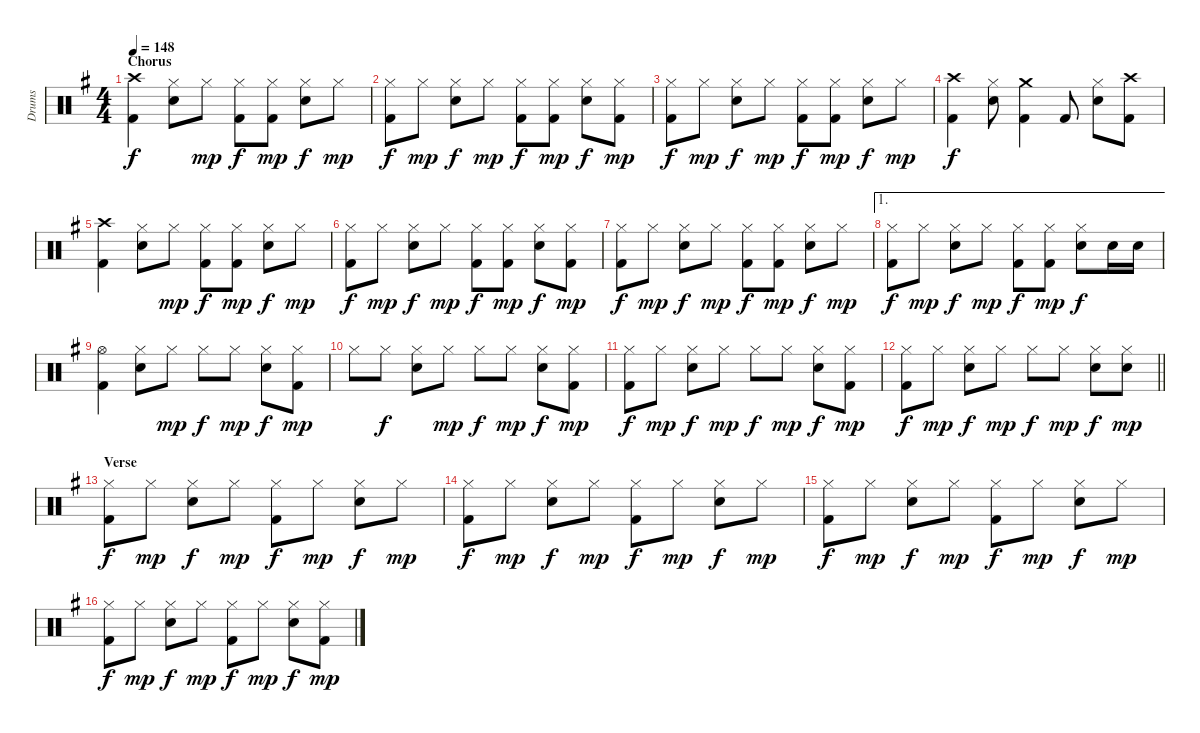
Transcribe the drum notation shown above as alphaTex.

\track ("Drums" "Drums") {instrument percussion}
\staff {score}
\articulation defaults
\ts (4 4)
\section ("" "Chorus")
\tempo 148
\clef neutral
\ks g
("Crash high (hit)" "Kick (hit) 2").4{dy f} ("Hi-Hat (closed)" "Electric Snare (hit)").8 "Hi-Hat (closed)".8{dy mp} ("Hi-Hat (closed)" "Kick (hit) 2").8{dy f} ("Hi-Hat (closed)" "Kick (hit) 2").8{dy mp} ("Hi-Hat (closed)" "Electric Snare (hit)").8{dy f} "Hi-Hat (closed)".8{dy mp} |
("Hi-Hat (closed)" "Kick (hit) 2").8{dy f} "Hi-Hat (closed)".8{dy mp} ("Hi-Hat (closed)" "Electric Snare (hit)").8{dy f} "Hi-Hat (closed)".8{dy mp} ("Hi-Hat (closed)" "Kick (hit) 2").8{dy f} ("Hi-Hat (closed)" "Kick (hit) 2").8{dy mp} ("Hi-Hat (closed)" "Electric Snare (hit)").8{dy f} ("Hi-Hat (closed)" "Kick (hit) 2").8{dy mp} |
("Hi-Hat (closed)" "Kick (hit) 2").8{dy f} "Hi-Hat (closed)".8{dy mp} ("Hi-Hat (closed)" "Electric Snare (hit)").8{dy f} "Hi-Hat (closed)".8{dy mp} ("Hi-Hat (closed)" "Kick (hit) 2").8{dy f} ("Hi-Hat (closed)" "Kick (hit) 2").8{dy mp} ("Hi-Hat (closed)" "Electric Snare (hit)").8{dy f} "Hi-Hat (closed)".8{dy mp} |
("Crash high (hit)" "Kick (hit) 2").4{dy f} ("Hi-Hat (closed)" "Electric Snare (hit)").8 ("Crash medium (hit)" "Kick (hit) 2").4 "Kick (hit) 2".8 ("Hi-Hat (closed)" "Electric Snare (hit)").8 ("Crash high (hit)" "Kick (hit) 2").8 |
("Crash high (hit)" "Kick (hit) 2").4 ("Hi-Hat (closed)" "Electric Snare (hit)").8 "Hi-Hat (closed)".8{dy mp} ("Hi-Hat (closed)" "Kick (hit) 2").8{dy f} ("Hi-Hat (closed)" "Kick (hit) 2").8{dy mp} ("Hi-Hat (closed)" "Electric Snare (hit)").8{dy f} "Hi-Hat (closed)".8{dy mp} |
("Hi-Hat (closed)" "Kick (hit) 2").8{dy f} "Hi-Hat (closed)".8{dy mp} ("Hi-Hat (closed)" "Electric Snare (hit)").8{dy f} "Hi-Hat (closed)".8{dy mp} ("Hi-Hat (closed)" "Kick (hit) 2").8{dy f} ("Hi-Hat (closed)" "Kick (hit) 2").8{dy mp} ("Hi-Hat (closed)" "Electric Snare (hit)").8{dy f} ("Hi-Hat (closed)" "Kick (hit) 2").8{dy mp} |
("Hi-Hat (closed)" "Kick (hit) 2").8{dy f} "Hi-Hat (closed)".8{dy mp} ("Hi-Hat (closed)" "Electric Snare (hit)").8{dy f} "Hi-Hat (closed)".8{dy mp} ("Hi-Hat (closed)" "Kick (hit) 2").8{dy f} ("Hi-Hat (closed)" "Kick (hit) 2").8{dy mp} ("Hi-Hat (closed)" "Electric Snare (hit)").8{dy f} "Hi-Hat (closed)".8{dy mp} |
\ae 1
("Hi-Hat (closed)" "Kick (hit) 2").8{dy f} "Hi-Hat (closed)".8{dy mp} ("Hi-Hat (closed)" "Electric Snare (hit)").8{dy f} "Hi-Hat (closed)".8{dy mp} ("Hi-Hat (closed)" "Kick (hit) 2").8{dy f} ("Hi-Hat (closed)" "Kick (hit) 2").8{dy mp} ("Hi-Hat (closed)" "Electric Snare (hit)").8{dy f} "Electric Snare (hit)".16 "Electric Snare (hit)".16 |
("Hi-Hat (open)" "Kick (hit) 2").4 ("Hi-Hat (closed)" "Electric Snare (hit)").8 "Hi-Hat (closed)".8{dy mp} "Hi-Hat (closed)".8{dy f} "Hi-Hat (closed)".8{dy mp} ("Hi-Hat (closed)" "Electric Snare (hit)").8{dy f} ("Hi-Hat (closed)" "Kick (hit) 2").8{dy mp} |
"Hi-Hat (closed)".8 "Hi-Hat (closed)".8{dy f} ("Hi-Hat (closed)" "Electric Snare (hit)").8 "Hi-Hat (closed)".8{dy mp} "Hi-Hat (closed)".8{dy f} "Hi-Hat (closed)".8{dy mp} ("Hi-Hat (closed)" "Electric Snare (hit)").8{dy f} ("Hi-Hat (closed)" "Kick (hit) 2").8{dy mp} |
("Hi-Hat (closed)" "Kick (hit) 2").8{dy f} "Hi-Hat (closed)".8{dy mp} ("Hi-Hat (closed)" "Electric Snare (hit)").8{dy f} "Hi-Hat (closed)".8{dy mp} "Hi-Hat (closed)".8{dy f} "Hi-Hat (closed)".8{dy mp} ("Hi-Hat (closed)" "Electric Snare (hit)").8{dy f} ("Hi-Hat (closed)" "Kick (hit) 2").8{dy mp} |
\barLineRight lightlight
("Hi-Hat (closed)" "Kick (hit) 2").8{dy f} "Hi-Hat (closed)".8{dy mp} ("Hi-Hat (closed)" "Electric Snare (hit)").8{dy f} "Hi-Hat (closed)".8{dy mp} "Hi-Hat (closed)".8{dy f} "Hi-Hat (closed)".8{dy mp} ("Hi-Hat (closed)" "Electric Snare (hit)").8{dy f} ("Hi-Hat (closed)" "Electric Snare (hit)").8{dy mp} |
\section ("" "Verse")
("Hi-Hat (closed)" "Kick (hit) 2").8{dy f} "Hi-Hat (closed)".8{dy mp} ("Hi-Hat (closed)" "Electric Snare (hit)").8{dy f} "Hi-Hat (closed)".8{dy mp} ("Hi-Hat (closed)" "Kick (hit) 2").8{dy f} "Hi-Hat (closed)".8{dy mp} ("Hi-Hat (closed)" "Electric Snare (hit)").8{dy f} "Hi-Hat (closed)".8{dy mp} |
("Hi-Hat (closed)" "Kick (hit) 2").8{dy f} "Hi-Hat (closed)".8{dy mp} ("Hi-Hat (closed)" "Electric Snare (hit)").8{dy f} "Hi-Hat (closed)".8{dy mp} ("Hi-Hat (closed)" "Kick (hit) 2").8{dy f} "Hi-Hat (closed)".8{dy mp} ("Hi-Hat (closed)" "Electric Snare (hit)").8{dy f} "Hi-Hat (closed)".8{dy mp} |
("Hi-Hat (closed)" "Kick (hit) 2").8{dy f} "Hi-Hat (closed)".8{dy mp} ("Hi-Hat (closed)" "Electric Snare (hit)").8{dy f} "Hi-Hat (closed)".8{dy mp} ("Hi-Hat (closed)" "Kick (hit) 2").8{dy f} "Hi-Hat (closed)".8{dy mp} ("Hi-Hat (closed)" "Electric Snare (hit)").8{dy f} "Hi-Hat (closed)".8{dy mp} |
("Hi-Hat (closed)" "Kick (hit) 2").8{dy f} "Hi-Hat (closed)".8{dy mp} ("Hi-Hat (closed)" "Electric Snare (hit)").8{dy f} "Hi-Hat (closed)".8{dy mp} ("Hi-Hat (closed)" "Kick (hit) 2").8{dy f} "Hi-Hat (closed)".8{dy mp} ("Hi-Hat (closed)" "Electric Snare (hit)").8{dy f} ("Hi-Hat (closed)" "Kick (hit) 2").8{dy mp}
